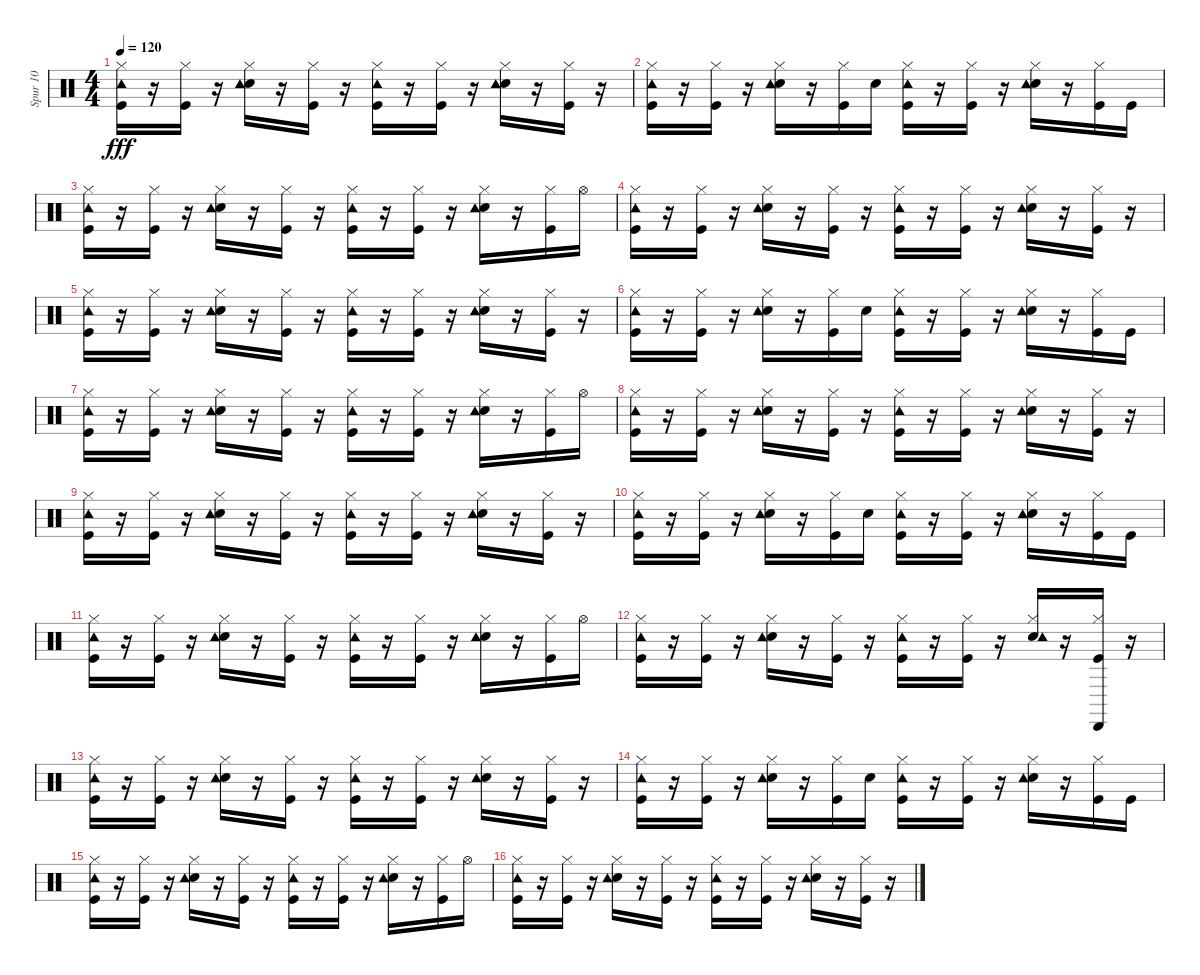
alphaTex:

\track ("Spur 10" "Spur 10") {instrument percussion}
\staff {score}
\articulation defaults
\ts (4 4)
\tempo 120
\clef neutral
\ks c
("Kick (hit)" "Hi-Hat (closed)" "Tambourine (hit)").16{dy fff} r.16 ("Kick (hit)" "Hi-Hat (closed)").16 r.16 ("Snare (hit) 2" "Hi-Hat (closed)" "Tambourine (hit)").16 r.16 ("Kick (hit)" "Hi-Hat (closed)").16 r.16 ("Kick (hit)" "Hi-Hat (closed)" "Tambourine (hit)").16 r.16 ("Kick (hit)" "Hi-Hat (closed)").16 r.16 ("Snare (hit) 2" "Hi-Hat (closed)" "Tambourine (hit)").16 r.16 ("Kick (hit)" "Hi-Hat (closed)").16 r.16 |
("Kick (hit)" "Hi-Hat (closed)" "Tambourine (hit)").16 r.16 ("Kick (hit)" "Hi-Hat (closed)").16 r.16 ("Snare (hit) 2" "Hi-Hat (closed)" "Tambourine (hit)").16 r.16 ("Kick (hit)" "Hi-Hat (closed)").16 "Snare (hit) 2".16 ("Kick (hit)" "Hi-Hat (closed)" "Tambourine (hit)").16 r.16 ("Kick (hit)" "Hi-Hat (closed)").16 r.16 ("Snare (hit) 2" "Hi-Hat (closed)" "Tambourine (hit)").16 r.16 ("Kick (hit)" "Hi-Hat (closed)").16 "Kick (hit)".16 |
("Kick (hit)" "Hi-Hat (closed)" "Tambourine (hit)").16 r.16 ("Kick (hit)" "Hi-Hat (closed)").16 r.16 ("Snare (hit) 2" "Hi-Hat (closed)" "Tambourine (hit)").16 r.16 ("Kick (hit)" "Hi-Hat (closed)").16 r.16 ("Kick (hit)" "Hi-Hat (closed)" "Tambourine (hit)").16 r.16 ("Kick (hit)" "Hi-Hat (closed)").16 r.16 ("Snare (hit) 2" "Hi-Hat (closed)" "Tambourine (hit)").16 r.16 ("Kick (hit)" "Hi-Hat (closed)").16 "Hi-Hat (open)".16 |
("Kick (hit)" "Hi-Hat (closed)" "Tambourine (hit)").16 r.16 ("Kick (hit)" "Hi-Hat (closed)").16 r.16 ("Snare (hit) 2" "Hi-Hat (closed)" "Tambourine (hit)").16 r.16 ("Kick (hit)" "Hi-Hat (closed)").16 r.16 ("Kick (hit)" "Hi-Hat (closed)" "Tambourine (hit)").16 r.16 ("Kick (hit)" "Hi-Hat (closed)").16 r.16 ("Snare (hit) 2" "Hi-Hat (closed)" "Tambourine (hit)").16 r.16 ("Kick (hit)" "Hi-Hat (closed)").16 r.16 |
("Kick (hit)" "Hi-Hat (closed)" "Tambourine (hit)").16 r.16 ("Kick (hit)" "Hi-Hat (closed)").16 r.16 ("Snare (hit) 2" "Hi-Hat (closed)" "Tambourine (hit)").16 r.16 ("Kick (hit)" "Hi-Hat (closed)").16 r.16 ("Kick (hit)" "Hi-Hat (closed)" "Tambourine (hit)").16 r.16 ("Kick (hit)" "Hi-Hat (closed)").16 r.16 ("Snare (hit) 2" "Hi-Hat (closed)" "Tambourine (hit)").16 r.16 ("Kick (hit)" "Hi-Hat (closed)").16 r.16 |
("Kick (hit)" "Hi-Hat (closed)" "Tambourine (hit)").16 r.16 ("Kick (hit)" "Hi-Hat (closed)").16 r.16 ("Snare (hit) 2" "Hi-Hat (closed)" "Tambourine (hit)").16 r.16 ("Kick (hit)" "Hi-Hat (closed)").16 "Snare (hit) 2".16 ("Kick (hit)" "Hi-Hat (closed)" "Tambourine (hit)").16 r.16 ("Kick (hit)" "Hi-Hat (closed)").16 r.16 ("Snare (hit) 2" "Hi-Hat (closed)" "Tambourine (hit)").16 r.16 ("Kick (hit)" "Hi-Hat (closed)").16 "Kick (hit)".16 |
("Kick (hit)" "Hi-Hat (closed)" "Tambourine (hit)").16 r.16 ("Kick (hit)" "Hi-Hat (closed)").16 r.16 ("Snare (hit) 2" "Hi-Hat (closed)" "Tambourine (hit)").16 r.16 ("Kick (hit)" "Hi-Hat (closed)").16 r.16 ("Kick (hit)" "Hi-Hat (closed)" "Tambourine (hit)").16 r.16 ("Kick (hit)" "Hi-Hat (closed)").16 r.16 ("Snare (hit) 2" "Hi-Hat (closed)" "Tambourine (hit)").16 r.16 ("Kick (hit)" "Hi-Hat (closed)").16 "Hi-Hat (open)".16 |
("Kick (hit)" "Hi-Hat (closed)" "Tambourine (hit)").16 r.16 ("Kick (hit)" "Hi-Hat (closed)").16 r.16 ("Snare (hit) 2" "Hi-Hat (closed)" "Tambourine (hit)").16 r.16 ("Kick (hit)" "Hi-Hat (closed)").16 r.16 ("Kick (hit)" "Hi-Hat (closed)" "Tambourine (hit)").16 r.16 ("Kick (hit)" "Hi-Hat (closed)").16 r.16 ("Snare (hit) 2" "Hi-Hat (closed)" "Tambourine (hit)").16 r.16 ("Kick (hit)" "Hi-Hat (closed)").16 r.16 |
("Kick (hit)" "Hi-Hat (closed)" "Tambourine (hit)").16 r.16 ("Kick (hit)" "Hi-Hat (closed)").16 r.16 ("Snare (hit) 2" "Hi-Hat (closed)" "Tambourine (hit)").16 r.16 ("Kick (hit)" "Hi-Hat (closed)").16 r.16 ("Kick (hit)" "Hi-Hat (closed)" "Tambourine (hit)").16 r.16 ("Kick (hit)" "Hi-Hat (closed)").16 r.16 ("Snare (hit) 2" "Hi-Hat (closed)" "Tambourine (hit)").16 r.16 ("Kick (hit)" "Hi-Hat (closed)").16 r.16 |
("Kick (hit)" "Hi-Hat (closed)" "Tambourine (hit)").16 r.16 ("Kick (hit)" "Hi-Hat (closed)").16 r.16 ("Snare (hit) 2" "Hi-Hat (closed)" "Tambourine (hit)").16 r.16 ("Kick (hit)" "Hi-Hat (closed)").16 "Snare (hit) 2".16 ("Kick (hit)" "Hi-Hat (closed)" "Tambourine (hit)").16 r.16 ("Kick (hit)" "Hi-Hat (closed)").16 r.16 ("Snare (hit) 2" "Hi-Hat (closed)" "Tambourine (hit)").16 r.16 ("Kick (hit)" "Hi-Hat (closed)").16 "Kick (hit)".16 |
("Kick (hit)" "Hi-Hat (closed)" "Tambourine (hit)").16 r.16 ("Kick (hit)" "Hi-Hat (closed)").16 r.16 ("Snare (hit) 2" "Hi-Hat (closed)" "Tambourine (hit)").16 r.16 ("Kick (hit)" "Hi-Hat (closed)").16 r.16 ("Kick (hit)" "Hi-Hat (closed)" "Tambourine (hit)").16 r.16 ("Kick (hit)" "Hi-Hat (closed)").16 r.16 ("Snare (hit) 2" "Hi-Hat (closed)" "Tambourine (hit)").16 r.16 ("Kick (hit)" "Hi-Hat (closed)").16 "Hi-Hat (open)".16 |
("Kick (hit)" "Hi-Hat (closed)" "Tambourine (hit)").16 r.16 ("Kick (hit)" "Hi-Hat (closed)").16 r.16 ("Snare (hit) 2" "Hi-Hat (closed)" "Tambourine (hit)").16 r.16 ("Kick (hit)" "Hi-Hat (closed)").16 r.16 ("Kick (hit)" "Hi-Hat (closed)" "Tambourine (hit)").16 r.16 ("Kick (hit)" "Hi-Hat (closed)").16 r.16 ("Snare (hit) 2" "Hi-Hat (closed)" "Tambourine (hit)").16 r.16 ("Kick (hit)" "Hi-Hat (closed)" "Cabasa (hit)").16 r.16 |
("Kick (hit)" "Hi-Hat (closed)" "Tambourine (hit)").16 r.16 ("Kick (hit)" "Hi-Hat (closed)").16 r.16 ("Snare (hit) 2" "Hi-Hat (closed)" "Tambourine (hit)").16 r.16 ("Kick (hit)" "Hi-Hat (closed)").16 r.16 ("Kick (hit)" "Hi-Hat (closed)" "Tambourine (hit)").16 r.16 ("Kick (hit)" "Hi-Hat (closed)").16 r.16 ("Snare (hit) 2" "Hi-Hat (closed)" "Tambourine (hit)").16 r.16 ("Kick (hit)" "Hi-Hat (closed)").16 r.16 |
("Kick (hit)" "Hi-Hat (closed)" "Tambourine (hit)").16 r.16 ("Kick (hit)" "Hi-Hat (closed)").16 r.16 ("Snare (hit) 2" "Hi-Hat (closed)" "Tambourine (hit)").16 r.16 ("Kick (hit)" "Hi-Hat (closed)").16 "Snare (hit) 2".16 ("Kick (hit)" "Hi-Hat (closed)" "Tambourine (hit)").16 r.16 ("Kick (hit)" "Hi-Hat (closed)").16 r.16 ("Snare (hit) 2" "Hi-Hat (closed)" "Tambourine (hit)").16 r.16 ("Kick (hit)" "Hi-Hat (closed)").16 "Kick (hit)".16 |
("Kick (hit)" "Hi-Hat (closed)" "Tambourine (hit)").16 r.16 ("Kick (hit)" "Hi-Hat (closed)").16 r.16 ("Snare (hit) 2" "Hi-Hat (closed)" "Tambourine (hit)").16 r.16 ("Kick (hit)" "Hi-Hat (closed)").16 r.16 ("Kick (hit)" "Hi-Hat (closed)" "Tambourine (hit)").16 r.16 ("Kick (hit)" "Hi-Hat (closed)").16 r.16 ("Snare (hit) 2" "Hi-Hat (closed)" "Tambourine (hit)").16 r.16 ("Kick (hit)" "Hi-Hat (closed)").16 "Hi-Hat (open)".16 |
("Kick (hit)" "Hi-Hat (closed)" "Tambourine (hit)").16 r.16 ("Kick (hit)" "Hi-Hat (closed)").16 r.16 ("Snare (hit) 2" "Hi-Hat (closed)" "Tambourine (hit)").16 r.16 ("Kick (hit)" "Hi-Hat (closed)").16 r.16 ("Kick (hit)" "Hi-Hat (closed)" "Tambourine (hit)").16 r.16 ("Kick (hit)" "Hi-Hat (closed)").16 r.16 ("Snare (hit) 2" "Hi-Hat (closed)" "Tambourine (hit)").16 r.16 ("Kick (hit)" "Hi-Hat (closed)").16 r.16
